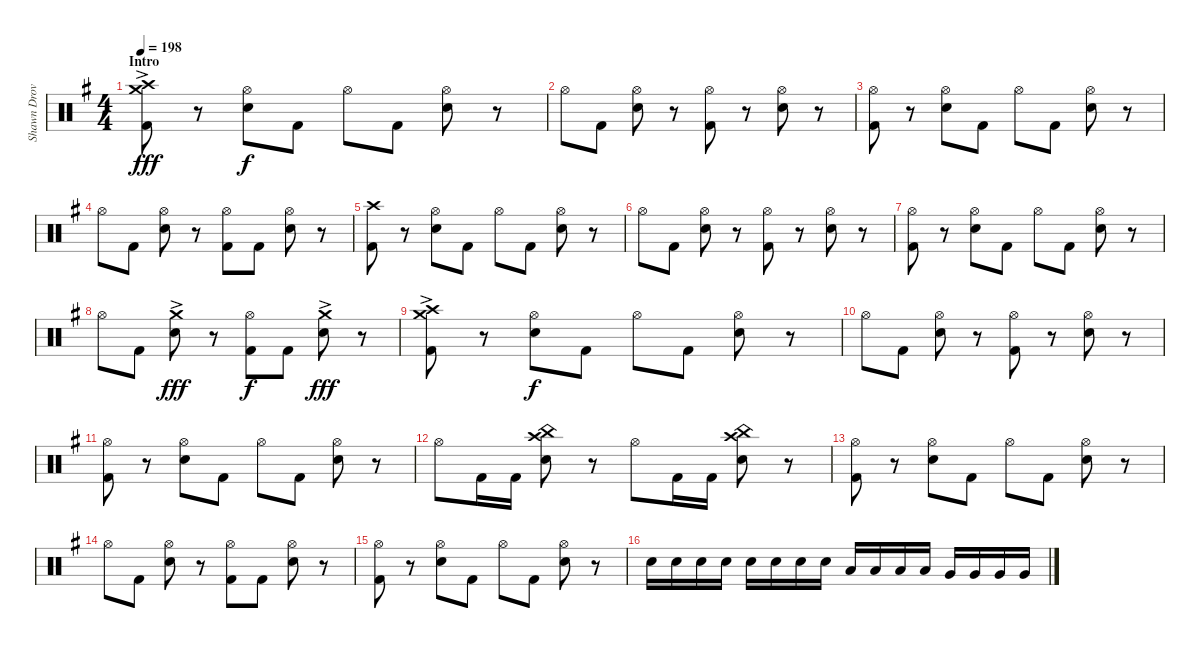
\track ("Shawn Drover" "Shawn Drov") {instrument percussion}
\staff {score}
\articulation defaults
\ts (4 4)
\section ("" "Intro")
\tempo 198
\clef neutral
\ks g
("Crash high (hit)"{ac} "Crash medium (hit)"{ac} "Kick (hit) 2").8{dy fff} r.8 ("Hi-Hat (open)" "Snare (hit) 2").8{dy f} "Kick (hit) 2".8 "Hi-Hat (open)".8 "Kick (hit) 2".8 ("Hi-Hat (open)" "Snare (hit) 2").8 r.8 |
"Hi-Hat (open)".8 "Kick (hit) 2".8 ("Hi-Hat (open)" "Snare (hit) 2").8 r.8 ("Hi-Hat (open)" "Kick (hit) 2").8 r.8 ("Hi-Hat (open)" "Snare (hit) 2").8 r.8 |
("Hi-Hat (open)" "Kick (hit) 2").8 r.8 ("Hi-Hat (open)" "Snare (hit) 2").8 "Kick (hit) 2".8 "Hi-Hat (open)".8 "Kick (hit) 2".8 ("Hi-Hat (open)" "Snare (hit) 2").8 r.8 |
"Hi-Hat (open)".8 "Kick (hit) 2".8 ("Hi-Hat (open)" "Snare (hit) 2").8 r.8 ("Hi-Hat (open)" "Kick (hit) 2").8 "Kick (hit) 2".8 ("Hi-Hat (open)" "Snare (hit) 2").8 r.8 |
("Crash high (hit)" "Kick (hit) 2").8 r.8 ("Hi-Hat (open)" "Snare (hit) 2").8 "Kick (hit) 2".8 "Hi-Hat (open)".8 "Kick (hit) 2".8 ("Hi-Hat (open)" "Snare (hit) 2").8 r.8 |
"Hi-Hat (open)".8 "Kick (hit) 2".8 ("Hi-Hat (open)" "Snare (hit) 2").8 r.8 ("Hi-Hat (open)" "Kick (hit) 2").8 r.8 ("Hi-Hat (open)" "Snare (hit) 2").8 r.8 |
("Hi-Hat (open)" "Kick (hit) 2").8 r.8 ("Hi-Hat (open)" "Snare (hit) 2").8 "Kick (hit) 2".8 "Hi-Hat (open)".8 "Kick (hit) 2".8 ("Hi-Hat (open)" "Snare (hit) 2").8 r.8 |
"Hi-Hat (open)".8 "Kick (hit) 2".8 ("Crash medium (hit)"{ac} "Snare (hit) 2").8{dy fff} r.8 ("Hi-Hat (open)" "Kick (hit) 2").8{dy f} "Kick (hit) 2".8 ("Crash medium (hit)"{ac} "Snare (hit) 2").8{dy fff} r.8 |
("Crash high (hit)"{ac} "Crash medium (hit)"{ac} "Kick (hit) 2").8 r.8 ("Hi-Hat (open)" "Snare (hit) 2").8{dy f} "Kick (hit) 2".8 "Hi-Hat (open)".8 "Kick (hit) 2".8 ("Hi-Hat (open)" "Snare (hit) 2").8 r.8 |
"Hi-Hat (open)".8 "Kick (hit) 2".8 ("Hi-Hat (open)" "Snare (hit) 2").8 r.8 ("Hi-Hat (open)" "Kick (hit) 2").8 r.8 ("Hi-Hat (open)" "Snare (hit) 2").8 r.8 |
("Hi-Hat (open)" "Kick (hit) 2").8 r.8 ("Hi-Hat (open)" "Snare (hit) 2").8 "Kick (hit) 2".8 "Hi-Hat (open)".8 "Kick (hit) 2".8 ("Hi-Hat (open)" "Snare (hit) 2").8 r.8 |
"Hi-Hat (open)".8 "Kick (hit) 2".16 "Kick (hit) 2".16 ("China (hit)" "Crash high (hit)" "Snare (hit) 2").8 r.8 "Hi-Hat (open)".8 "Kick (hit) 2".16 "Kick (hit) 2".16 ("China (hit)" "Crash high (hit)" "Snare (hit) 2").8 r.8 |
("Hi-Hat (open)" "Kick (hit) 2").8 r.8 ("Hi-Hat (open)" "Snare (hit) 2").8 "Kick (hit) 2".8 "Hi-Hat (open)".8 "Kick (hit) 2".8 ("Hi-Hat (open)" "Snare (hit) 2").8 r.8 |
"Hi-Hat (open)".8 "Kick (hit) 2".8 ("Hi-Hat (open)" "Snare (hit) 2").8 r.8 ("Hi-Hat (open)" "Kick (hit) 2").8 "Kick (hit) 2".8 ("Hi-Hat (open)" "Snare (hit) 2").8 r.8 |
("Hi-Hat (open)" "Kick (hit) 2").8 r.8 ("Hi-Hat (open)" "Snare (hit) 2").8 "Kick (hit) 2".8 "Hi-Hat (open)".8 "Kick (hit) 2".8 ("Hi-Hat (open)" "Snare (hit) 2").8 r.8 |
"Snare (hit) 2".16 "Snare (hit) 2".16 "Snare (hit) 2".16 "Snare (hit) 2".16 "Snare (hit) 2".16 "Snare (hit) 2".16 "Snare (hit) 2".16 "Snare (hit) 2".16 "Low Tom (hit)".16 "Low Tom (hit)".16 "Low Tom (hit)".16 "Low Tom (hit)".16 "Very Low Tom (hit)".16 "Very Low Tom (hit)".16 "Very Low Tom (hit)".16 "Very Low Tom (hit)".16
